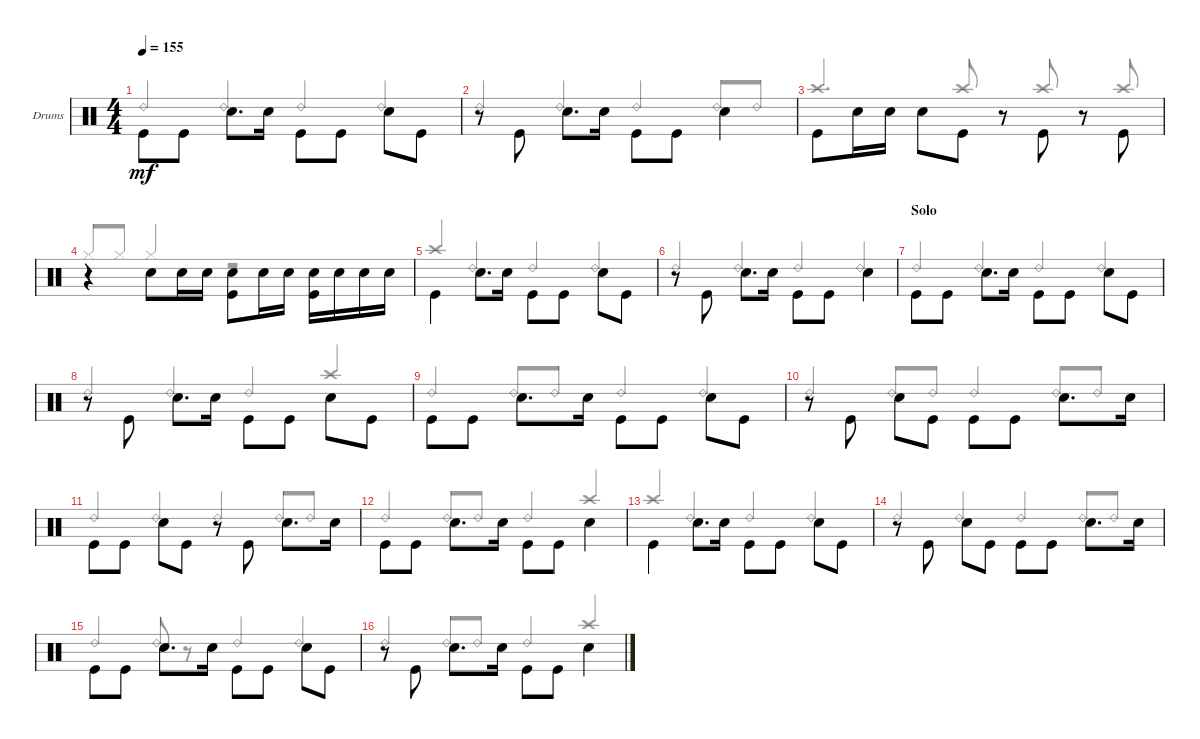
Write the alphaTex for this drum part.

\defaultSystemsLayout 4
\bracketExtendMode groupsimilarinstruments
\firstSystemTrackNameOrientation horizontal
\otherSystemsTrackNameOrientation horizontal
\track ("PETER CRISS" "Drums") {instrument percussion}
\staff {score}
\articulation defaults
\voice
\ts (4 4)
\tempo 155
\clef neutral
\ks c "Kick (hit)".8{dy mf beam invert} "Kick (hit)".8 "Snare (hit) 2".8{d beam invert} "Snare (hit) 2".16 "Kick (hit)".8{beam invert} "Kick (hit)".8 "Snare (hit) 2".8{beam invert} "Kick (hit)".8
|
r.8 "Kick (hit)".8{beam invert} "Snare (hit) 2".8{d beam invert} "Snare (hit) 2".16 "Kick (hit)".8{beam invert} "Kick (hit)".8 "Snare (hit) 2".4{beam invert} |
"Kick (hit)".8{beam invert} "Snare (hit) 2".16 "Snare (hit) 2".16 "Snare (hit) 2".8{beam invert} "Kick (hit)".8 r.8 "Kick (hit)".8{beam invert} r.8 "Kick (hit)".8{beam invert} |
r.4 "Snare (hit) 2".8{beam invert} "Snare (hit) 2".16 "Snare (hit) 2".16 ("Snare (hit) 2" "Kick (hit)").8{beam invert} "Snare (hit) 2".16 "Snare (hit) 2".16 ("Snare (hit) 2" "Kick (hit)").16{beam invert} "Snare (hit) 2".16 "Snare (hit) 2".16 "Snare (hit) 2".16 |
"Kick (hit)".4{beam invert} "Snare (hit) 2".8{d beam invert} "Snare (hit) 2".16 "Kick (hit)".8{beam invert} "Kick (hit)".8 "Snare (hit) 2".8{beam invert} "Kick (hit)".8 |
r.8 "Kick (hit)".8{beam invert} "Snare (hit) 2".8{d beam invert} "Snare (hit) 2".16 "Kick (hit)".8{beam invert} "Kick (hit)".8 "Snare (hit) 2".4{beam invert} |
\section ("" "Solo")
"Kick (hit)".8{beam invert} "Kick (hit)".8 "Snare (hit) 2".8{d beam invert} "Snare (hit) 2".16 "Kick (hit)".8{beam invert} "Kick (hit)".8 "Snare (hit) 2".8{beam invert} "Kick (hit)".8 |
r.8{beam invert} "Kick (hit)".8{beam invert} "Snare (hit) 2".8{d beam invert} "Snare (hit) 2".16 "Kick (hit)".8{beam invert} "Kick (hit)".8 "Snare (hit) 2".8{beam invert} "Kick (hit)".8 |
"Kick (hit)".8{beam invert} "Kick (hit)".8 "Snare (hit) 2".8{d beam invert} "Snare (hit) 2".16 "Kick (hit)".8{beam invert} "Kick (hit)".8 "Snare (hit) 2".8{beam invert} "Kick (hit)".8 |
r.8{beam invert} "Kick (hit)".8{beam invert} "Snare (hit) 2".8{beam invert} "Kick (hit)".8 "Kick (hit)".8{beam invert} "Kick (hit)".8 "Snare (hit) 2".8{d beam invert} "Snare (hit) 2".16 |
"Kick (hit)".8{beam invert} "Kick (hit)".8 "Snare (hit) 2".8{beam invert} "Kick (hit)".8 r.8{beam invert} "Kick (hit)".8{beam invert} "Snare (hit) 2".8{d beam invert} "Snare (hit) 2".16 |
"Kick (hit)".8{beam invert} "Kick (hit)".8 "Snare (hit) 2".8{d beam invert} "Snare (hit) 2".16 "Kick (hit)".8{beam invert} "Kick (hit)".8 "Snare (hit) 2".4{beam invert} |
"Kick (hit)".4{beam invert} "Snare (hit) 2".8{d beam invert} "Snare (hit) 2".16 "Kick (hit)".8{beam invert} "Kick (hit)".8 "Snare (hit) 2".8{beam invert} "Kick (hit)".8 |
r.8{beam invert} "Kick (hit)".8{beam invert} "Snare (hit) 2".8{beam invert} "Kick (hit)".8 "Kick (hit)".8{beam invert} "Kick (hit)".8 "Snare (hit) 2".8{d beam invert} "Snare (hit) 2".16 |
"Kick (hit)".8{beam invert} "Kick (hit)".8 "Snare (hit) 2".8{d beam invert} "Snare (hit) 2".16 "Kick (hit)".8{beam invert} "Kick (hit)".8 "Snare (hit) 2".8{beam invert} "Kick (hit)".8 |
r.8{beam invert} "Kick (hit)".8{beam invert} "Snare (hit) 2".8{d beam invert} "Snare (hit) 2".16 "Kick (hit)".8{beam invert} "Kick (hit)".8 "Snare (hit) 2".4{beam invert}
\voice
\clef neutral
\ottava regular
\simile none
\ks c "Ride (bell) 2".4{dy mf beam invert} "Ride (bell) 2".4{beam invert} "Ride (bell) 2".4{beam invert} "Ride (bell) 2".4{beam invert}
|
"Ride (bell) 2".4{beam invert} "Ride (bell) 2".4{beam invert} "Ride (bell) 2".4{beam invert} "Ride (bell) 2".8{beam invert} "Ride (bell) 2".8 |
"Crash high (hit)".4{d beam invert} "Crash high (hit)".8{beam invert} r.8 "Crash high (hit)".8{beam invert} r.8 "Crash high (hit)".8{beam invert} |
"Hi-Hat (closed)".8{beam invert} "Hi-Hat (closed)".8 "Hi-Hat (closed)".4{beam invert} r.2 |
"Crash high (hit)".4{beam invert} "Ride (bell) 2".4{beam invert} "Ride (bell) 2".4{beam invert} "Ride (bell) 2".4{beam invert} |
"Ride (bell) 2".4{beam invert} "Ride (bell) 2".4{beam invert} "Ride (bell) 2".4{beam invert} "Ride (bell) 2".4{beam invert} |
"Ride (bell) 2".4{beam invert} "Ride (bell) 2".4{beam invert} "Ride (bell) 2".4{beam invert} "Ride (bell) 2".4{beam invert} |
"Ride (bell) 2".4{beam invert} "Ride (bell) 2".4{beam invert} "Ride (bell) 2".4{beam invert} "Crash high (hit)".4{beam invert} |
"Ride (bell) 2".4{beam invert} "Ride (bell) 2".8{beam invert} "Ride (bell) 2".8 "Ride (bell) 2".4{beam invert} "Ride (bell) 2".4{beam invert} |
"Ride (bell) 2".4{beam invert} "Ride (bell) 2".8{beam invert} "Ride (bell) 2".8 "Ride (bell) 2".4{beam invert} "Ride (bell) 2".8{beam invert} "Ride (bell) 2".8 |
"Ride (bell) 2".4{beam invert} "Ride (bell) 2".4{beam invert} "Ride (bell) 2".4{beam invert} "Ride (bell) 2".8{beam invert} "Ride (bell) 2".8 |
"Ride (bell) 2".4{beam invert} "Ride (bell) 2".8{beam invert} "Ride (bell) 2".8 "Ride (bell) 2".4{beam invert} "Crash high (hit)".4{beam invert} |
"Crash high (hit)".4{beam invert} "Ride (bell) 2".4{beam invert} "Ride (bell) 2".4{beam invert} "Ride (bell) 2".4{beam invert} |
"Ride (bell) 2".4{beam invert} "Ride (bell) 2".4{beam invert} "Ride (bell) 2".4{beam invert} "Ride (bell) 2".8{beam invert} "Ride (bell) 2".8 |
"Ride (bell) 2".4{beam invert} "Ride (bell) 2".8{beam invert} r.8{beam invert} "Ride (bell) 2".4{beam invert} "Ride (bell) 2".4{beam invert} |
"Ride (bell) 2".4{beam invert} "Ride (bell) 2".8{beam invert} "Ride (bell) 2".8 "Ride (bell) 2".4{beam invert} "Crash high (hit)".4{beam invert}
